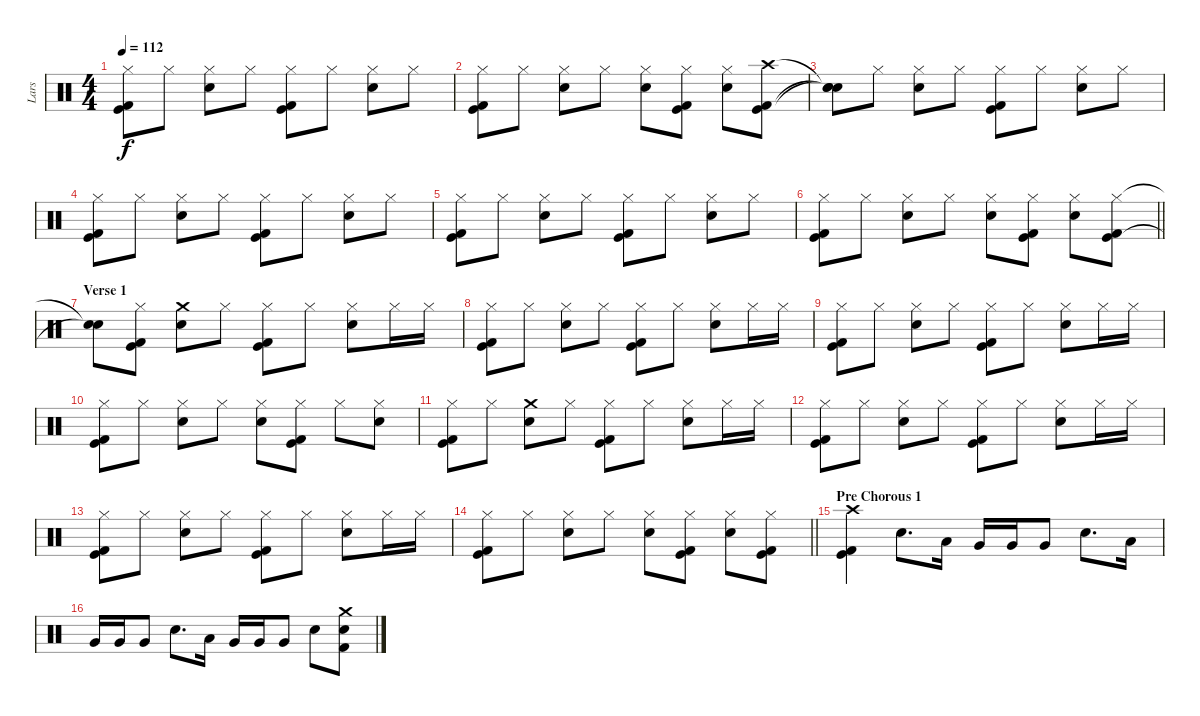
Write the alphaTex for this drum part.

\track ("Lars" "Lars") {instrument percussion}
\staff {score}
\articulation defaults
\ts (4 4)
\tempo 112
\clef neutral
\ks c
("Hi-Hat (closed)" "Kick (hit)" "Kick (hit) 2").8{dy f} "Hi-Hat (closed)".8 ("Hi-Hat (closed)" "Electric Snare (hit)").8 "Hi-Hat (closed)".8 ("Hi-Hat (closed)" "Kick (hit)" "Kick (hit) 2").8 "Hi-Hat (closed)".8 ("Hi-Hat (closed)" "Electric Snare (hit)").8 "Hi-Hat (closed)".8 |
("Hi-Hat (closed)" "Kick (hit)" "Kick (hit) 2").8 "Hi-Hat (closed)".8 ("Hi-Hat (closed)" "Electric Snare (hit)").8 "Hi-Hat (closed)".8 ("Hi-Hat (closed)" "Electric Snare (hit)").8 ("Hi-Hat (closed)" "Kick (hit)" "Kick (hit) 2").8 ("Hi-Hat (closed)" "Electric Snare (hit)").8 ("Crash high (hit)" "Kick (hit)" "Kick (hit) 2").8 |
("Snare (hit)"{t} "Snare (hit)"{t} "Snare (hit)"{t}).8 "Hi-Hat (closed)".8 ("Hi-Hat (closed)" "Electric Snare (hit)").8 "Hi-Hat (closed)".8 ("Hi-Hat (closed)" "Kick (hit)" "Kick (hit) 2").8 "Hi-Hat (closed)".8 ("Hi-Hat (closed)" "Electric Snare (hit)").8 "Hi-Hat (closed)".8 |
("Hi-Hat (closed)" "Kick (hit)" "Kick (hit) 2").8 "Hi-Hat (closed)".8 ("Hi-Hat (closed)" "Electric Snare (hit)").8 "Hi-Hat (closed)".8 ("Hi-Hat (closed)" "Kick (hit)" "Kick (hit) 2").8 "Hi-Hat (closed)".8 ("Hi-Hat (closed)" "Electric Snare (hit)").8 "Hi-Hat (closed)".8 |
("Hi-Hat (closed)" "Kick (hit)" "Kick (hit) 2").8 "Hi-Hat (closed)".8 ("Hi-Hat (closed)" "Electric Snare (hit)").8 "Hi-Hat (closed)".8 ("Hi-Hat (closed)" "Kick (hit)" "Kick (hit) 2").8 "Hi-Hat (closed)".8 ("Hi-Hat (closed)" "Electric Snare (hit)").8 "Hi-Hat (closed)".8 |
\barLineRight lightlight
("Hi-Hat (closed)" "Kick (hit)" "Kick (hit) 2").8 "Hi-Hat (closed)".8 ("Hi-Hat (closed)" "Electric Snare (hit)").8 "Hi-Hat (closed)".8 ("Hi-Hat (closed)" "Electric Snare (hit)").8 ("Hi-Hat (closed)" "Kick (hit)" "Kick (hit) 2").8 ("Hi-Hat (closed)" "Electric Snare (hit)").8 ("Hi-Hat (closed)" "Kick (hit)" "Kick (hit) 2").8 |
\section ("" "Verse 1")
("Snare (hit)"{t} "Snare (hit)"{t}).8 ("Hi-Hat (closed)" "Kick (hit)" "Kick (hit) 2").8 ("Crash medium (hit)" "Electric Snare (hit)").8 "Hi-Hat (closed)".8 ("Hi-Hat (closed)" "Kick (hit)" "Kick (hit) 2").8 "Hi-Hat (closed)".8 ("Hi-Hat (closed)" "Electric Snare (hit)").8 "Hi-Hat (closed)".16 "Hi-Hat (closed)".16 |
("Hi-Hat (closed)" "Kick (hit)" "Kick (hit) 2").8 "Hi-Hat (closed)".8 ("Hi-Hat (closed)" "Electric Snare (hit)").8 "Hi-Hat (closed)".8 ("Hi-Hat (closed)" "Kick (hit)" "Kick (hit) 2").8 "Hi-Hat (closed)".8 ("Hi-Hat (closed)" "Electric Snare (hit)").8 "Hi-Hat (closed)".16 "Hi-Hat (closed)".16 |
("Hi-Hat (closed)" "Kick (hit)" "Kick (hit) 2").8 "Hi-Hat (closed)".8 ("Hi-Hat (closed)" "Electric Snare (hit)").8 "Hi-Hat (closed)".8 ("Hi-Hat (closed)" "Kick (hit)" "Kick (hit) 2").8 "Hi-Hat (closed)".8 ("Hi-Hat (closed)" "Electric Snare (hit)").8 "Hi-Hat (closed)".16 "Hi-Hat (closed)".16 |
("Hi-Hat (closed)" "Kick (hit)" "Kick (hit) 2").8 "Hi-Hat (closed)".8 ("Hi-Hat (closed)" "Electric Snare (hit)").8 "Hi-Hat (closed)".8 ("Hi-Hat (closed)" "Electric Snare (hit)").8 ("Hi-Hat (closed)" "Kick (hit)" "Kick (hit) 2").8 "Hi-Hat (closed)".8 ("Hi-Hat (closed)" "Electric Snare (hit)").8 |
("Hi-Hat (closed)" "Kick (hit)" "Kick (hit) 2").8 "Hi-Hat (closed)".8 ("Crash medium (hit)" "Electric Snare (hit)").8 "Hi-Hat (closed)".8 ("Hi-Hat (closed)" "Kick (hit)" "Kick (hit) 2").8 "Hi-Hat (closed)".8 ("Hi-Hat (closed)" "Electric Snare (hit)").8 "Hi-Hat (closed)".16 "Hi-Hat (closed)".16 |
("Hi-Hat (closed)" "Kick (hit)" "Kick (hit) 2").8 "Hi-Hat (closed)".8 ("Hi-Hat (closed)" "Electric Snare (hit)").8 "Hi-Hat (closed)".8 ("Hi-Hat (closed)" "Kick (hit)" "Kick (hit) 2").8 "Hi-Hat (closed)".8 ("Hi-Hat (closed)" "Electric Snare (hit)").8 "Hi-Hat (closed)".16 "Hi-Hat (closed)".16 |
("Hi-Hat (closed)" "Kick (hit)" "Kick (hit) 2").8 "Hi-Hat (closed)".8 ("Hi-Hat (closed)" "Electric Snare (hit)").8 "Hi-Hat (closed)".8 ("Hi-Hat (closed)" "Kick (hit)" "Kick (hit) 2").8 "Hi-Hat (closed)".8 ("Hi-Hat (closed)" "Electric Snare (hit)").8 "Hi-Hat (closed)".16 "Hi-Hat (closed)".16 |
\barLineRight lightlight
("Hi-Hat (closed)" "Kick (hit)" "Kick (hit) 2").8 "Hi-Hat (closed)".8 ("Hi-Hat (closed)" "Electric Snare (hit)").8 "Hi-Hat (closed)".8 ("Hi-Hat (closed)" "Electric Snare (hit)").8 ("Hi-Hat (closed)" "Kick (hit)" "Kick (hit) 2").8 ("Hi-Hat (closed)" "Electric Snare (hit)").8 ("Hi-Hat (closed)" "Kick (hit)" "Kick (hit) 2").8 |
\section ("" "Pre Chorous 1")
("Crash high (hit)" "Kick (hit)" "Kick (hit) 2").4 "Electric Snare (hit)".8{d} "Low Tom (hit)".16 "Very Low Tom (hit)".16 "Very Low Tom (hit)".16 "Very Low Tom (hit)".8 "Electric Snare (hit)".8{d} "Low Tom (hit)".16 |
"Very Low Tom (hit)".16 "Very Low Tom (hit)".16 "Very Low Tom (hit)".8 "Electric Snare (hit)".8{d} "Low Tom (hit)".16 "Very Low Tom (hit)".16 "Very Low Tom (hit)".16 "Very Low Tom (hit)".8 "Electric Snare (hit)".8 ("Crash medium (hit)" "Electric Snare (hit)" "Kick (hit) 2").8
